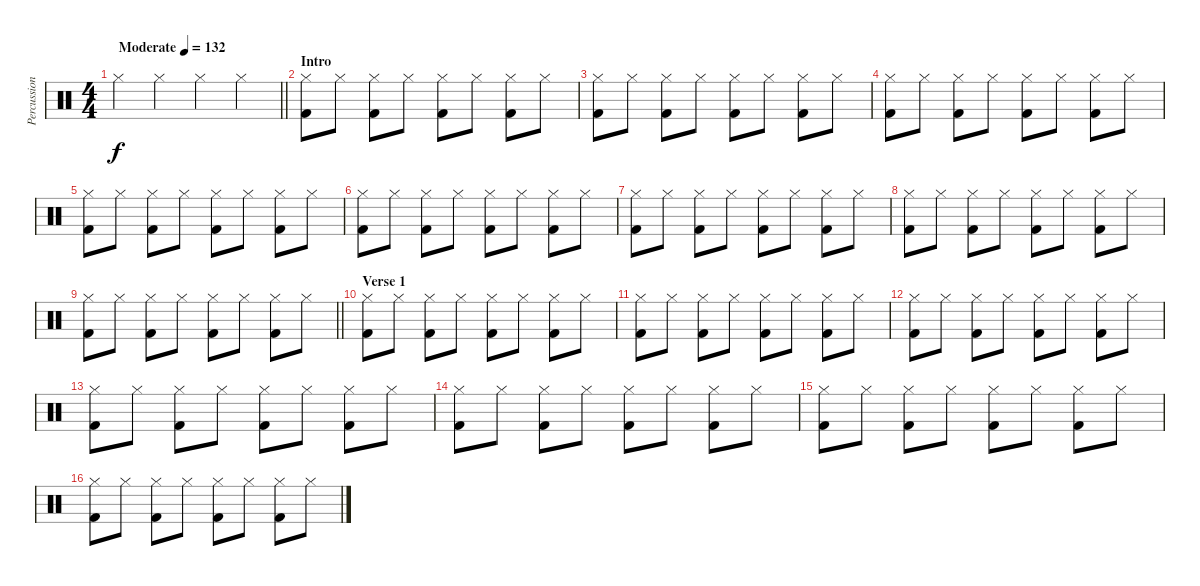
\track ("Percussion" "Percussion") {instrument percussion}
\staff {score}
\articulation defaults
\ts (4 4)
\tempo (132 "Moderate")
\clef neutral
\barLineRight lightlight
\ks c "Hi-Hat (closed)".4{dy f} "Hi-Hat (closed)".4 "Hi-Hat (closed)".4 "Hi-Hat (closed)".4
|
\section ("" "Intro")
("Hi-Hat (closed)" "Kick (hit) 2").8 "Hi-Hat (closed)".8 ("Hi-Hat (closed)" "Kick (hit) 2").8 "Hi-Hat (closed)".8 ("Hi-Hat (closed)" "Kick (hit) 2").8 "Hi-Hat (closed)".8 ("Hi-Hat (closed)" "Kick (hit) 2").8 "Hi-Hat (closed)".8 |
("Hi-Hat (closed)" "Kick (hit) 2").8 "Hi-Hat (closed)".8 ("Hi-Hat (closed)" "Kick (hit) 2").8 "Hi-Hat (closed)".8 ("Hi-Hat (closed)" "Kick (hit) 2").8 "Hi-Hat (closed)".8 ("Hi-Hat (closed)" "Kick (hit) 2").8 "Hi-Hat (closed)".8 |
("Hi-Hat (closed)" "Kick (hit) 2").8 "Hi-Hat (closed)".8 ("Hi-Hat (closed)" "Kick (hit) 2").8 "Hi-Hat (closed)".8 ("Hi-Hat (closed)" "Kick (hit) 2").8 "Hi-Hat (closed)".8 ("Hi-Hat (closed)" "Kick (hit) 2").8 "Hi-Hat (closed)".8 |
("Hi-Hat (closed)" "Kick (hit) 2").8 "Hi-Hat (closed)".8 ("Hi-Hat (closed)" "Kick (hit) 2").8 "Hi-Hat (closed)".8 ("Hi-Hat (closed)" "Kick (hit) 2").8 "Hi-Hat (closed)".8 ("Hi-Hat (closed)" "Kick (hit) 2").8 "Hi-Hat (closed)".8 |
("Hi-Hat (closed)" "Kick (hit) 2").8 "Hi-Hat (closed)".8 ("Hi-Hat (closed)" "Kick (hit) 2").8 "Hi-Hat (closed)".8 ("Hi-Hat (closed)" "Kick (hit) 2").8 "Hi-Hat (closed)".8 ("Hi-Hat (closed)" "Kick (hit) 2").8 "Hi-Hat (closed)".8 |
("Hi-Hat (closed)" "Kick (hit) 2").8 "Hi-Hat (closed)".8 ("Hi-Hat (closed)" "Kick (hit) 2").8 "Hi-Hat (closed)".8 ("Hi-Hat (closed)" "Kick (hit) 2").8 "Hi-Hat (closed)".8 ("Hi-Hat (closed)" "Kick (hit) 2").8 "Hi-Hat (closed)".8 |
("Hi-Hat (closed)" "Kick (hit) 2").8 "Hi-Hat (closed)".8 ("Hi-Hat (closed)" "Kick (hit) 2").8 "Hi-Hat (closed)".8 ("Hi-Hat (closed)" "Kick (hit) 2").8 "Hi-Hat (closed)".8 ("Hi-Hat (closed)" "Kick (hit) 2").8 "Hi-Hat (closed)".8 |
\barLineRight lightlight
("Hi-Hat (closed)" "Kick (hit) 2").8 "Hi-Hat (closed)".8 ("Hi-Hat (closed)" "Kick (hit) 2").8 "Hi-Hat (closed)".8 ("Hi-Hat (closed)" "Kick (hit) 2").8 "Hi-Hat (closed)".8 ("Hi-Hat (closed)" "Kick (hit) 2").8 "Hi-Hat (closed)".8 |
\section ("" "Verse 1")
("Hi-Hat (closed)" "Kick (hit) 2").8 "Hi-Hat (closed)".8 ("Hi-Hat (closed)" "Kick (hit) 2").8 "Hi-Hat (closed)".8 ("Hi-Hat (closed)" "Kick (hit) 2").8 "Hi-Hat (closed)".8 ("Hi-Hat (closed)" "Kick (hit) 2").8 "Hi-Hat (closed)".8 |
("Hi-Hat (closed)" "Kick (hit) 2").8 "Hi-Hat (closed)".8 ("Hi-Hat (closed)" "Kick (hit) 2").8 "Hi-Hat (closed)".8 ("Hi-Hat (closed)" "Kick (hit) 2").8 "Hi-Hat (closed)".8 ("Hi-Hat (closed)" "Kick (hit) 2").8 "Hi-Hat (closed)".8 |
("Hi-Hat (closed)" "Kick (hit) 2").8 "Hi-Hat (closed)".8 ("Hi-Hat (closed)" "Kick (hit) 2").8 "Hi-Hat (closed)".8 ("Hi-Hat (closed)" "Kick (hit) 2").8 "Hi-Hat (closed)".8 ("Hi-Hat (closed)" "Kick (hit) 2").8 "Hi-Hat (closed)".8 |
("Hi-Hat (closed)" "Kick (hit) 2").8 "Hi-Hat (closed)".8 ("Hi-Hat (closed)" "Kick (hit) 2").8 "Hi-Hat (closed)".8 ("Hi-Hat (closed)" "Kick (hit) 2").8 "Hi-Hat (closed)".8 ("Hi-Hat (closed)" "Kick (hit) 2").8 "Hi-Hat (closed)".8 |
("Hi-Hat (closed)" "Kick (hit) 2").8 "Hi-Hat (closed)".8 ("Hi-Hat (closed)" "Kick (hit) 2").8 "Hi-Hat (closed)".8 ("Hi-Hat (closed)" "Kick (hit) 2").8 "Hi-Hat (closed)".8 ("Hi-Hat (closed)" "Kick (hit) 2").8 "Hi-Hat (closed)".8 |
("Hi-Hat (closed)" "Kick (hit) 2").8 "Hi-Hat (closed)".8 ("Hi-Hat (closed)" "Kick (hit) 2").8 "Hi-Hat (closed)".8 ("Hi-Hat (closed)" "Kick (hit) 2").8 "Hi-Hat (closed)".8 ("Hi-Hat (closed)" "Kick (hit) 2").8 "Hi-Hat (closed)".8 |
("Hi-Hat (closed)" "Kick (hit) 2").8 "Hi-Hat (closed)".8 ("Hi-Hat (closed)" "Kick (hit) 2").8 "Hi-Hat (closed)".8 ("Hi-Hat (closed)" "Kick (hit) 2").8 "Hi-Hat (closed)".8 ("Hi-Hat (closed)" "Kick (hit) 2").8 "Hi-Hat (closed)".8
